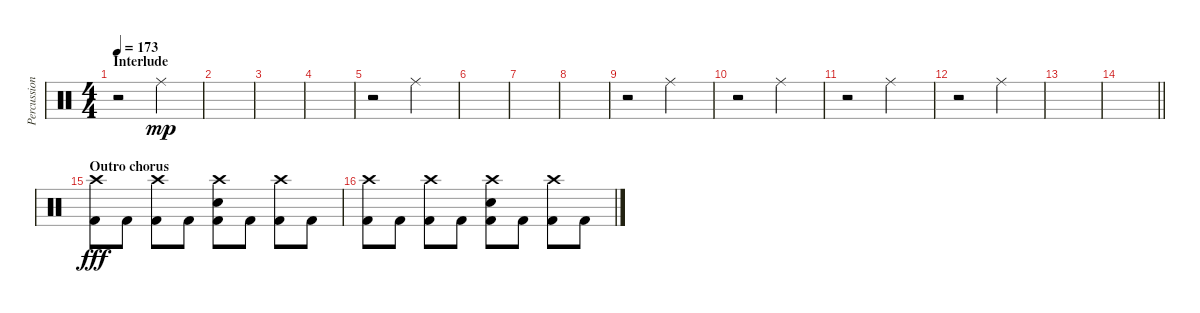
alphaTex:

\track ("Percussion" "Percussion") {instrument percussion}
\staff {score}
\articulation defaults
\ts (4 4)
\section ("" "Interlude")
\tempo 173
\clef neutral
\ks c
r.2{dy fff} "Ride (middle)".2{dy mp} |
|
|
|
r.2 "Ride (middle)".2 |
|
|
|
r.2 "Ride (middle)".2 |
r.2 "Ride (middle)".2 |
r.2 "Ride (middle)".2 |
r.2 "Ride (middle)".2 |
|
\barLineRight lightlight
|
\section ("" "Outro chorus")
("Crash high (hit)" "Kick (hit) 2").8{dy fff} "Kick (hit) 2".8 ("Crash high (hit)" "Kick (hit) 2").8 "Kick (hit) 2".8 ("Crash high (hit)" "Electric Snare (hit)" "Kick (hit) 2").8 "Kick (hit) 2".8 ("Crash high (hit)" "Kick (hit) 2").8 "Kick (hit) 2".8 |
("Crash high (hit)" "Kick (hit) 2").8 "Kick (hit) 2".8 ("Crash high (hit)" "Kick (hit) 2").8 "Kick (hit) 2".8 ("Crash high (hit)" "Electric Snare (hit)" "Kick (hit) 2").8 "Kick (hit) 2".8 ("Crash high (hit)" "Kick (hit) 2").8 "Kick (hit) 2".8
